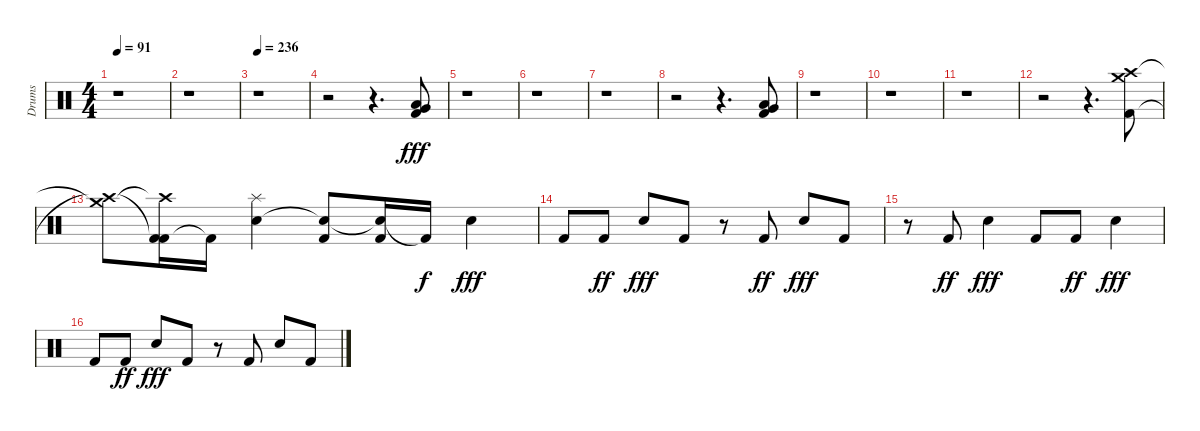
\track ("Drums" "Drums") {instrument percussion}
\staff {score}
\articulation defaults
\ts (4 4)
\tempo 91
\clef neutral
\ks c
r.1{dy fff} |
r.1 |
\tempo 236
r.1 |
r.2 r.4{d} ("Kick (hit) 2" "Low Floor Tom (hit)" "Very Low Tom (hit)").8 |
r.1 |
r.1 |
r.1 |
r.2 r.4{d} ("Kick (hit) 2" "Low Floor Tom (hit)" "Very Low Tom (hit)").8 |
r.1 |
r.1 |
r.1 |
r.2 r.4{d} ("Kick (hit) 2" "Crash high (hit)" "Crash medium (hit)").8 |
("Crash high (hit)"{t} "Crash medium (hit)"{t}).8 ("Kick (hit) 2"{t} "Crash high (hit)"{t} "Kick (hit) 2").16 "Kick (hit) 2"{t}.16 ("Snare (hit) 2" "Splash (hit)").4 ("Snare (hit) 2"{t} "Kick (hit) 2").8 ("Snare (hit) 2"{t} "Kick (hit) 2").16 "Kick (hit) 2"{t}.16{dy f} "Snare (hit) 2".4{dy fff} |
"Kick (hit) 2".8 "Kick (hit) 2".8{dy ff} "Snare (hit) 2".8{dy fff} "Kick (hit) 2".8 r.8 "Kick (hit) 2".8{dy ff} "Snare (hit) 2".8{dy fff} "Kick (hit) 2".8 |
r.8 "Kick (hit) 2".8{dy ff} "Snare (hit) 2".4{dy fff} "Kick (hit) 2".8 "Kick (hit) 2".8{dy ff} "Snare (hit) 2".4{dy fff} |
"Kick (hit) 2".8 "Kick (hit) 2".8{dy ff} "Snare (hit) 2".8{dy fff} "Kick (hit) 2".8 r.8 "Kick (hit) 2".8 "Snare (hit) 2".8 "Kick (hit) 2".8
